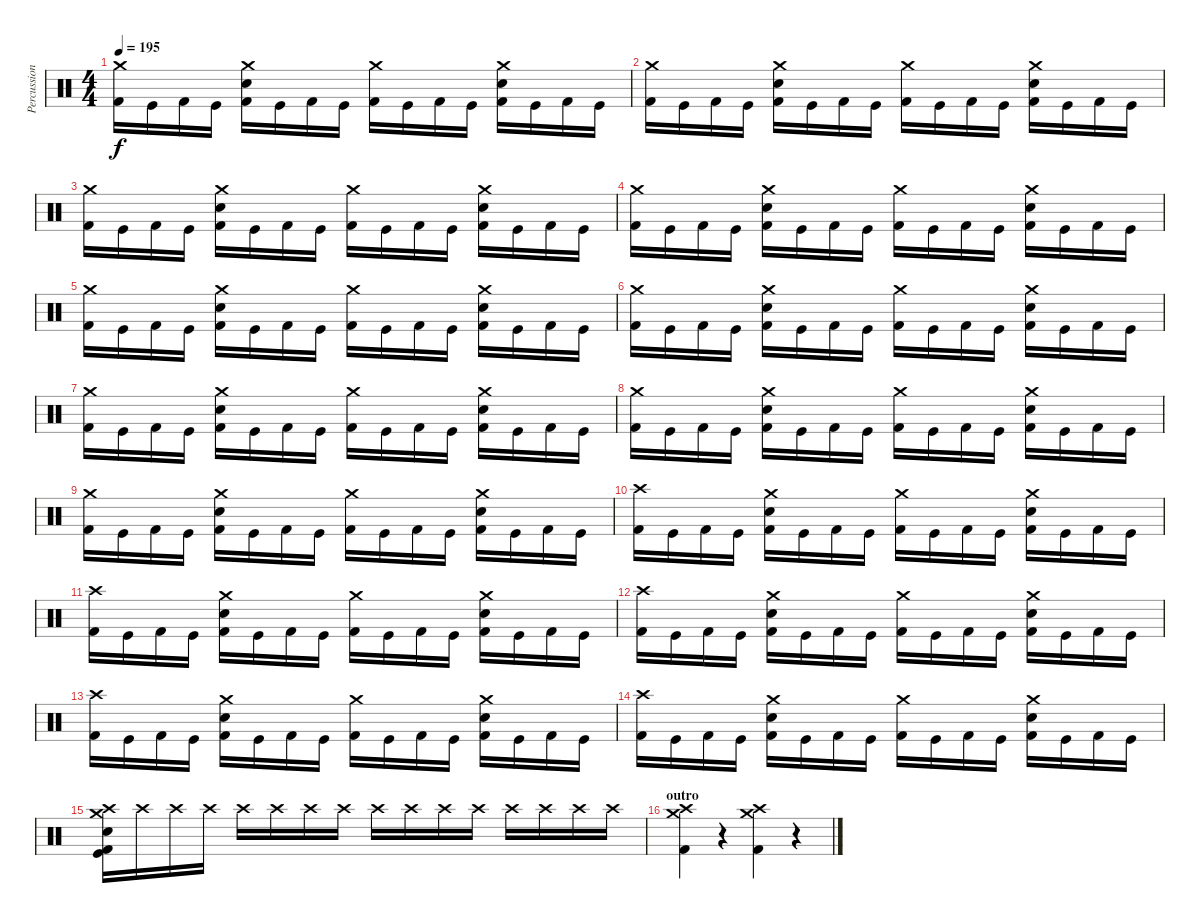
\track ("Percussion" "Percussion") {instrument percussion}
\staff {score}
\articulation defaults
\ts (4 4)
\tempo 195
\clef neutral
\ks c
("Crash medium (hit)" "Kick (hit) 2").16{dy f} "Kick (hit)".16 "Kick (hit) 2".16 "Kick (hit)".16 ("Crash medium (hit)" "Electric Snare (hit)" "Kick (hit) 2").16 "Kick (hit)".16 "Kick (hit) 2".16 "Kick (hit)".16 ("Crash medium (hit)" "Kick (hit) 2").16 "Kick (hit)".16 "Kick (hit) 2".16 "Kick (hit)".16 ("Crash medium (hit)" "Electric Snare (hit)" "Kick (hit) 2").16 "Kick (hit)".16 "Kick (hit) 2".16 "Kick (hit)".16 |
("Crash medium (hit)" "Kick (hit) 2").16 "Kick (hit)".16 "Kick (hit) 2".16 "Kick (hit)".16 ("Crash medium (hit)" "Electric Snare (hit)" "Kick (hit) 2").16 "Kick (hit)".16 "Kick (hit) 2".16 "Kick (hit)".16 ("Crash medium (hit)" "Kick (hit) 2").16 "Kick (hit)".16 "Kick (hit) 2".16 "Kick (hit)".16 ("Crash medium (hit)" "Electric Snare (hit)" "Kick (hit) 2").16 "Kick (hit)".16 "Kick (hit) 2".16 "Kick (hit)".16 |
("Crash medium (hit)" "Kick (hit) 2").16 "Kick (hit)".16 "Kick (hit) 2".16 "Kick (hit)".16 ("Crash medium (hit)" "Electric Snare (hit)" "Kick (hit) 2").16 "Kick (hit)".16 "Kick (hit) 2".16 "Kick (hit)".16 ("Crash medium (hit)" "Kick (hit) 2").16 "Kick (hit)".16 "Kick (hit) 2".16 "Kick (hit)".16 ("Crash medium (hit)" "Electric Snare (hit)" "Kick (hit) 2").16 "Kick (hit)".16 "Kick (hit) 2".16 "Kick (hit)".16 |
("Crash medium (hit)" "Kick (hit) 2").16 "Kick (hit)".16 "Kick (hit) 2".16 "Kick (hit)".16 ("Crash medium (hit)" "Electric Snare (hit)" "Kick (hit) 2").16 "Kick (hit)".16 "Kick (hit) 2".16 "Kick (hit)".16 ("Crash medium (hit)" "Kick (hit) 2").16 "Kick (hit)".16 "Kick (hit) 2".16 "Kick (hit)".16 ("Crash medium (hit)" "Electric Snare (hit)" "Kick (hit) 2").16 "Kick (hit)".16 "Kick (hit) 2".16 "Kick (hit)".16 |
("Crash medium (hit)" "Kick (hit) 2").16 "Kick (hit)".16 "Kick (hit) 2".16 "Kick (hit)".16 ("Crash medium (hit)" "Electric Snare (hit)" "Kick (hit) 2").16 "Kick (hit)".16 "Kick (hit) 2".16 "Kick (hit)".16 ("Crash medium (hit)" "Kick (hit) 2").16 "Kick (hit)".16 "Kick (hit) 2".16 "Kick (hit)".16 ("Crash medium (hit)" "Electric Snare (hit)" "Kick (hit) 2").16 "Kick (hit)".16 "Kick (hit) 2".16 "Kick (hit)".16 |
("Crash medium (hit)" "Kick (hit) 2").16 "Kick (hit)".16 "Kick (hit) 2".16 "Kick (hit)".16 ("Crash medium (hit)" "Electric Snare (hit)" "Kick (hit) 2").16 "Kick (hit)".16 "Kick (hit) 2".16 "Kick (hit)".16 ("Crash medium (hit)" "Kick (hit) 2").16 "Kick (hit)".16 "Kick (hit) 2".16 "Kick (hit)".16 ("Crash medium (hit)" "Electric Snare (hit)" "Kick (hit) 2").16 "Kick (hit)".16 "Kick (hit) 2".16 "Kick (hit)".16 |
("Crash medium (hit)" "Kick (hit) 2").16 "Kick (hit)".16 "Kick (hit) 2".16 "Kick (hit)".16 ("Crash medium (hit)" "Electric Snare (hit)" "Kick (hit) 2").16 "Kick (hit)".16 "Kick (hit) 2".16 "Kick (hit)".16 ("Crash medium (hit)" "Kick (hit) 2").16 "Kick (hit)".16 "Kick (hit) 2".16 "Kick (hit)".16 ("Crash medium (hit)" "Electric Snare (hit)" "Kick (hit) 2").16 "Kick (hit)".16 "Kick (hit) 2".16 "Kick (hit)".16 |
\section ("" "")
("Crash medium (hit)" "Kick (hit) 2").16 "Kick (hit)".16 "Kick (hit) 2".16 "Kick (hit)".16 ("Crash medium (hit)" "Electric Snare (hit)" "Kick (hit) 2").16 "Kick (hit)".16 "Kick (hit) 2".16 "Kick (hit)".16 ("Crash medium (hit)" "Kick (hit) 2").16 "Kick (hit)".16 "Kick (hit) 2".16 "Kick (hit)".16 ("Crash medium (hit)" "Electric Snare (hit)" "Kick (hit) 2").16 "Kick (hit)".16 "Kick (hit) 2".16 "Kick (hit)".16 |
("Crash medium (hit)" "Kick (hit) 2").16 "Kick (hit)".16 "Kick (hit) 2".16 "Kick (hit)".16 ("Crash medium (hit)" "Electric Snare (hit)" "Kick (hit) 2").16 "Kick (hit)".16 "Kick (hit) 2".16 "Kick (hit)".16 ("Crash medium (hit)" "Kick (hit) 2").16 "Kick (hit)".16 "Kick (hit) 2".16 "Kick (hit)".16 ("Crash medium (hit)" "Electric Snare (hit)" "Kick (hit) 2").16 "Kick (hit)".16 "Kick (hit) 2".16 "Kick (hit)".16 |
("Crash high (hit)" "Kick (hit) 2").16 "Kick (hit)".16 "Kick (hit) 2".16 "Kick (hit)".16 ("Crash medium (hit)" "Electric Snare (hit)" "Kick (hit) 2").16 "Kick (hit)".16 "Kick (hit) 2".16 "Kick (hit)".16 ("Crash medium (hit)" "Kick (hit) 2").16 "Kick (hit)".16 "Kick (hit) 2".16 "Kick (hit)".16 ("Crash medium (hit)" "Electric Snare (hit)" "Kick (hit) 2").16 "Kick (hit)".16 "Kick (hit) 2".16 "Kick (hit)".16 |
("Crash high (hit)" "Kick (hit) 2").16 "Kick (hit)".16 "Kick (hit) 2".16 "Kick (hit)".16 ("Crash medium (hit)" "Electric Snare (hit)" "Kick (hit) 2").16 "Kick (hit)".16 "Kick (hit) 2".16 "Kick (hit)".16 ("Crash medium (hit)" "Kick (hit) 2").16 "Kick (hit)".16 "Kick (hit) 2".16 "Kick (hit)".16 ("Crash medium (hit)" "Electric Snare (hit)" "Kick (hit) 2").16 "Kick (hit)".16 "Kick (hit) 2".16 "Kick (hit)".16 |
("Crash high (hit)" "Kick (hit) 2").16 "Kick (hit)".16 "Kick (hit) 2".16 "Kick (hit)".16 ("Crash medium (hit)" "Electric Snare (hit)" "Kick (hit) 2").16 "Kick (hit)".16 "Kick (hit) 2".16 "Kick (hit)".16 ("Crash medium (hit)" "Kick (hit) 2").16 "Kick (hit)".16 "Kick (hit) 2".16 "Kick (hit)".16 ("Crash medium (hit)" "Electric Snare (hit)" "Kick (hit) 2").16 "Kick (hit)".16 "Kick (hit) 2".16 "Kick (hit)".16 |
\section ("" "")
("Crash high (hit)" "Kick (hit) 2").16 "Kick (hit)".16 "Kick (hit) 2".16 "Kick (hit)".16 ("Crash medium (hit)" "Electric Snare (hit)" "Kick (hit) 2").16 "Kick (hit)".16 "Kick (hit) 2".16 "Kick (hit)".16 ("Crash medium (hit)" "Kick (hit) 2").16 "Kick (hit)".16 "Kick (hit) 2".16 "Kick (hit)".16 ("Crash medium (hit)" "Electric Snare (hit)" "Kick (hit) 2").16 "Kick (hit)".16 "Kick (hit) 2".16 "Kick (hit)".16 |
("Crash high (hit)" "Kick (hit) 2").16 "Kick (hit)".16 "Kick (hit) 2".16 "Kick (hit)".16 ("Crash medium (hit)" "Electric Snare (hit)" "Kick (hit) 2").16 "Kick (hit)".16 "Kick (hit) 2".16 "Kick (hit)".16 ("Crash medium (hit)" "Kick (hit) 2").16 "Kick (hit)".16 "Kick (hit) 2".16 "Kick (hit)".16 ("Crash medium (hit)" "Electric Snare (hit)" "Kick (hit) 2").16 "Kick (hit)".16 "Kick (hit) 2".16 "Kick (hit)".16 |
("Crash medium (hit)" "Crash high (hit)" "Electric Snare (hit)" "Kick (hit)" "Kick (hit) 2").16 "Crash high (hit)".16 "Crash high (hit)".16 "Crash high (hit)".16 "Crash high (hit)".16 "Crash high (hit)".16 "Crash high (hit)".16 "Crash high (hit)".16 "Crash high (hit)".16 "Crash high (hit)".16 "Crash high (hit)".16 "Crash high (hit)".16 "Crash high (hit)".16 "Crash high (hit)".16 "Crash high (hit)".16 "Crash high (hit)".16 |
\section ("" "outro")
("Crash medium (hit)" "Crash high (hit)" "Kick (hit) 2").4 r.4 ("Crash high (hit)" "Crash medium (hit)" "Kick (hit) 2").4 r.4
